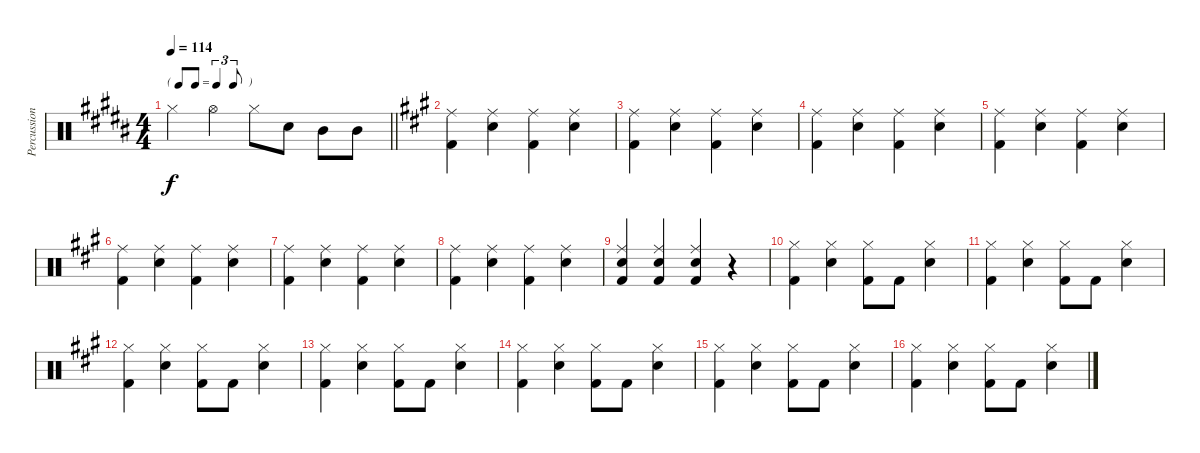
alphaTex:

\track ("Percussion" "Percussion") {instrument percussion}
\staff {score}
\articulation defaults
\ts (4 4)
\tf triplet8th
\tempo 114
\clef neutral
\barLineRight lightlight
\ks b "Hi-Hat (closed)"{t}.4{dy f} "Hi-Hat (open)".4 "Hi-Hat (closed)".8 "Snare (hit) 2".8 "Mid Tom (hit)".8 "Mid Tom (hit)".8
|
\ks a
("Ride (middle)" "Kick (hit) 2").4 ("Ride (middle)" "Snare (hit) 2").4 ("Ride (middle)" "Kick (hit) 2").4 ("Ride (middle)" "Snare (hit) 2").4 |
("Ride (middle)" "Kick (hit) 2").4 ("Ride (middle)" "Snare (hit) 2").4 ("Ride (middle)" "Kick (hit) 2").4 ("Ride (middle)" "Snare (hit) 2").4 |
("Ride (middle)" "Kick (hit) 2").4 ("Ride (middle)" "Snare (hit) 2").4 ("Ride (middle)" "Kick (hit) 2").4 ("Ride (middle)" "Snare (hit) 2").4 |
("Ride (middle)" "Kick (hit) 2").4 ("Ride (middle)" "Snare (hit) 2").4 ("Ride (middle)" "Kick (hit) 2").4 ("Ride (middle)" "Snare (hit) 2").4 |
("Ride (middle)" "Kick (hit) 2").4 ("Ride (middle)" "Snare (hit) 2").4 ("Ride (middle)" "Kick (hit) 2").4 ("Ride (middle)" "Snare (hit) 2").4 |
("Ride (middle)" "Kick (hit) 2").4 ("Ride (middle)" "Snare (hit) 2").4 ("Ride (middle)" "Kick (hit) 2").4 ("Ride (middle)" "Snare (hit) 2").4 |
("Ride (middle)" "Kick (hit) 2").4 ("Ride (middle)" "Snare (hit) 2").4 ("Ride (middle)" "Kick (hit) 2").4 ("Ride (middle)" "Snare (hit) 2").4 |
("Ride (middle)" "Snare (hit) 2" "Kick (hit) 2").4 ("Ride (middle)" "Snare (hit) 2" "Kick (hit) 2").4 ("Ride (middle)" "Snare (hit) 2" "Kick (hit) 2").4 r.4 |
("Hi-Hat (closed)" "Kick (hit) 2").4 ("Hi-Hat (closed)" "Snare (hit) 2").4 ("Hi-Hat (closed)" "Kick (hit) 2").8 "Kick (hit) 2".8 ("Hi-Hat (closed)" "Snare (hit) 2").4 |
("Hi-Hat (closed)" "Kick (hit) 2").4 ("Hi-Hat (closed)" "Snare (hit) 2").4 ("Hi-Hat (closed)" "Kick (hit) 2").8 "Kick (hit) 2".8 ("Hi-Hat (closed)" "Snare (hit) 2").4 |
("Hi-Hat (closed)" "Kick (hit) 2").4 ("Hi-Hat (closed)" "Snare (hit) 2").4 ("Hi-Hat (closed)" "Kick (hit) 2").8 "Kick (hit) 2".8 ("Hi-Hat (closed)" "Snare (hit) 2").4 |
("Hi-Hat (closed)" "Kick (hit) 2").4 ("Hi-Hat (closed)" "Snare (hit) 2").4 ("Hi-Hat (closed)" "Kick (hit) 2").8 "Kick (hit) 2".8 ("Hi-Hat (closed)" "Snare (hit) 2").4 |
("Hi-Hat (closed)" "Kick (hit) 2").4 ("Hi-Hat (closed)" "Snare (hit) 2").4 ("Hi-Hat (closed)" "Kick (hit) 2").8 "Kick (hit) 2".8 ("Hi-Hat (closed)" "Snare (hit) 2").4 |
("Hi-Hat (closed)" "Kick (hit) 2").4 ("Hi-Hat (closed)" "Snare (hit) 2").4 ("Hi-Hat (closed)" "Kick (hit) 2").8 "Kick (hit) 2".8 ("Hi-Hat (closed)" "Snare (hit) 2").4 |
("Hi-Hat (closed)" "Kick (hit) 2").4 ("Hi-Hat (closed)" "Snare (hit) 2").4 ("Hi-Hat (closed)" "Kick (hit) 2").8 "Kick (hit) 2".8 ("Hi-Hat (closed)" "Snare (hit) 2").4
